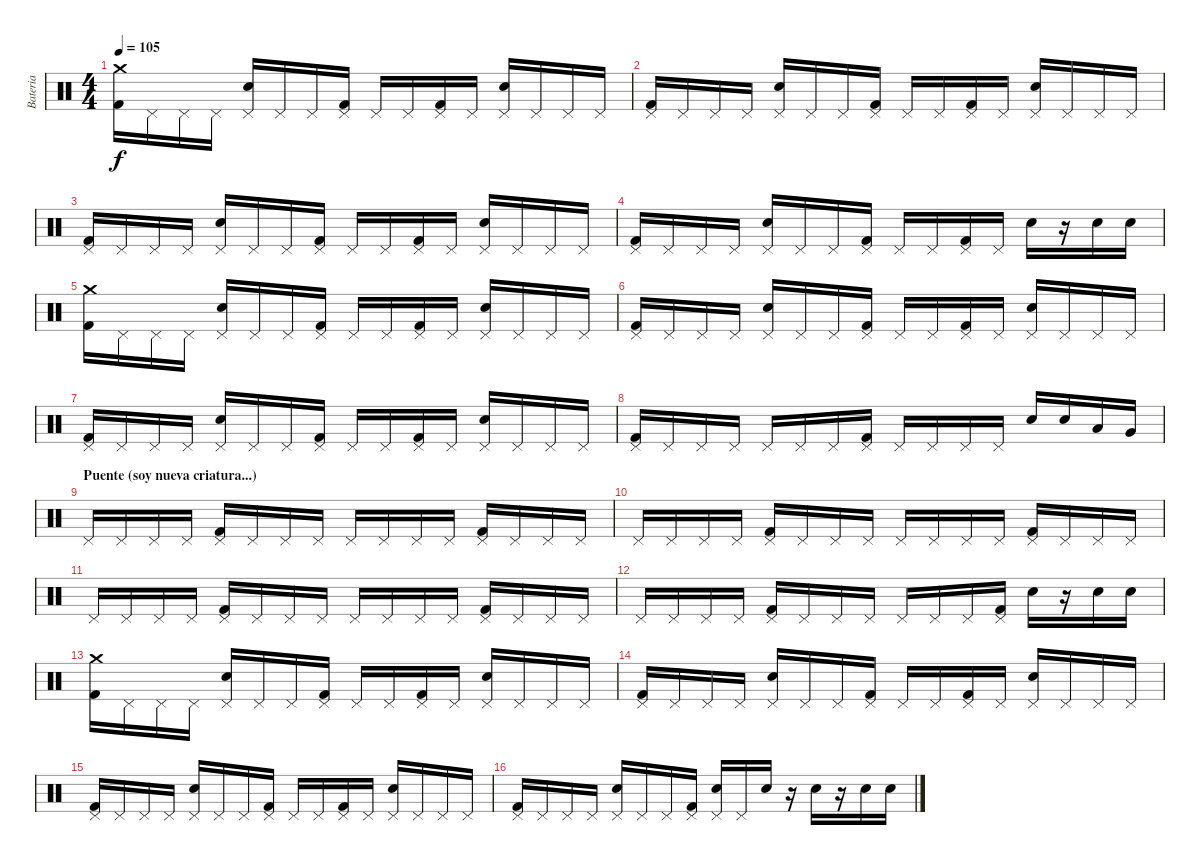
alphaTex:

\track ("Bateria" "Bateria") {instrument percussion}
\staff {score}
\articulation defaults
\ts (4 4)
\tempo 105
\clef neutral
\ks c
("Crash medium (hit)" "Kick (hit) 2").16{dy f} "Pedal Hi-Hat (hit)".16 "Pedal Hi-Hat (hit)".16 "Pedal Hi-Hat (hit)".16 ("Pedal Hi-Hat (hit)" "Electric Snare (hit)").16 "Pedal Hi-Hat (hit)".16 "Pedal Hi-Hat (hit)".16 ("Pedal Hi-Hat (hit)" "Kick (hit) 2").16 "Pedal Hi-Hat (hit)".16 "Pedal Hi-Hat (hit)".16 ("Pedal Hi-Hat (hit)" "Kick (hit) 2").16 "Pedal Hi-Hat (hit)".16 ("Pedal Hi-Hat (hit)" "Electric Snare (hit)").16 "Pedal Hi-Hat (hit)".16 "Pedal Hi-Hat (hit)".16 "Pedal Hi-Hat (hit)".16 |
("Pedal Hi-Hat (hit)" "Kick (hit) 2").16 "Pedal Hi-Hat (hit)".16 "Pedal Hi-Hat (hit)".16 "Pedal Hi-Hat (hit)".16 ("Pedal Hi-Hat (hit)" "Electric Snare (hit)").16 "Pedal Hi-Hat (hit)".16 "Pedal Hi-Hat (hit)".16 ("Pedal Hi-Hat (hit)" "Kick (hit) 2").16 "Pedal Hi-Hat (hit)".16 "Pedal Hi-Hat (hit)".16 ("Pedal Hi-Hat (hit)" "Kick (hit) 2").16 "Pedal Hi-Hat (hit)".16 ("Pedal Hi-Hat (hit)" "Electric Snare (hit)").16 "Pedal Hi-Hat (hit)".16 "Pedal Hi-Hat (hit)".16 "Pedal Hi-Hat (hit)".16 |
("Pedal Hi-Hat (hit)" "Kick (hit) 2").16 "Pedal Hi-Hat (hit)".16 "Pedal Hi-Hat (hit)".16 "Pedal Hi-Hat (hit)".16 ("Pedal Hi-Hat (hit)" "Electric Snare (hit)").16 "Pedal Hi-Hat (hit)".16 "Pedal Hi-Hat (hit)".16 ("Pedal Hi-Hat (hit)" "Kick (hit) 2").16 "Pedal Hi-Hat (hit)".16 "Pedal Hi-Hat (hit)".16 ("Pedal Hi-Hat (hit)" "Kick (hit) 2").16 "Pedal Hi-Hat (hit)".16 ("Pedal Hi-Hat (hit)" "Electric Snare (hit)").16 "Pedal Hi-Hat (hit)".16 "Pedal Hi-Hat (hit)".16 "Pedal Hi-Hat (hit)".16 |
("Pedal Hi-Hat (hit)" "Kick (hit) 2").16 "Pedal Hi-Hat (hit)".16 "Pedal Hi-Hat (hit)".16 "Pedal Hi-Hat (hit)".16 ("Pedal Hi-Hat (hit)" "Electric Snare (hit)").16 "Pedal Hi-Hat (hit)".16 "Pedal Hi-Hat (hit)".16 ("Pedal Hi-Hat (hit)" "Kick (hit) 2").16 "Pedal Hi-Hat (hit)".16 "Pedal Hi-Hat (hit)".16 ("Pedal Hi-Hat (hit)" "Kick (hit) 2").16 "Pedal Hi-Hat (hit)".16 "Electric Snare (hit)".16 r.16 "Electric Snare (hit)".16 "Electric Snare (hit)".16 |
("Crash medium (hit)" "Kick (hit) 2").16 "Pedal Hi-Hat (hit)".16 "Pedal Hi-Hat (hit)".16 "Pedal Hi-Hat (hit)".16 ("Pedal Hi-Hat (hit)" "Electric Snare (hit)").16 "Pedal Hi-Hat (hit)".16 "Pedal Hi-Hat (hit)".16 ("Pedal Hi-Hat (hit)" "Kick (hit) 2").16 "Pedal Hi-Hat (hit)".16 "Pedal Hi-Hat (hit)".16 ("Pedal Hi-Hat (hit)" "Kick (hit) 2").16 "Pedal Hi-Hat (hit)".16 ("Pedal Hi-Hat (hit)" "Electric Snare (hit)").16 "Pedal Hi-Hat (hit)".16 "Pedal Hi-Hat (hit)".16 "Pedal Hi-Hat (hit)".16 |
("Pedal Hi-Hat (hit)" "Kick (hit) 2").16 "Pedal Hi-Hat (hit)".16 "Pedal Hi-Hat (hit)".16 "Pedal Hi-Hat (hit)".16 ("Pedal Hi-Hat (hit)" "Electric Snare (hit)").16 "Pedal Hi-Hat (hit)".16 "Pedal Hi-Hat (hit)".16 ("Pedal Hi-Hat (hit)" "Kick (hit) 2").16 "Pedal Hi-Hat (hit)".16 "Pedal Hi-Hat (hit)".16 ("Pedal Hi-Hat (hit)" "Kick (hit) 2").16 "Pedal Hi-Hat (hit)".16 ("Pedal Hi-Hat (hit)" "Electric Snare (hit)").16 "Pedal Hi-Hat (hit)".16 "Pedal Hi-Hat (hit)".16 "Pedal Hi-Hat (hit)".16 |
("Pedal Hi-Hat (hit)" "Kick (hit) 2").16 "Pedal Hi-Hat (hit)".16 "Pedal Hi-Hat (hit)".16 "Pedal Hi-Hat (hit)".16 ("Pedal Hi-Hat (hit)" "Electric Snare (hit)").16 "Pedal Hi-Hat (hit)".16 "Pedal Hi-Hat (hit)".16 ("Pedal Hi-Hat (hit)" "Kick (hit) 2").16 "Pedal Hi-Hat (hit)".16 "Pedal Hi-Hat (hit)".16 ("Pedal Hi-Hat (hit)" "Kick (hit) 2").16 "Pedal Hi-Hat (hit)".16 ("Pedal Hi-Hat (hit)" "Electric Snare (hit)").16 "Pedal Hi-Hat (hit)".16 "Pedal Hi-Hat (hit)".16 "Pedal Hi-Hat (hit)".16 |
("Pedal Hi-Hat (hit)" "Kick (hit) 2").16 "Pedal Hi-Hat (hit)".16 "Pedal Hi-Hat (hit)".16 "Pedal Hi-Hat (hit)".16 "Pedal Hi-Hat (hit)".16 "Pedal Hi-Hat (hit)".16 "Pedal Hi-Hat (hit)".16 ("Pedal Hi-Hat (hit)" "Kick (hit) 2").16 "Pedal Hi-Hat (hit)".16 "Pedal Hi-Hat (hit)".16 "Pedal Hi-Hat (hit)".16 "Pedal Hi-Hat (hit)".16 "Electric Snare (hit)".16 "Electric Snare (hit)".16 "Low Floor Tom (hit)".16 "Very Low Tom (hit)".16 |
\section ("" "Puente (soy nueva criatura...)")
"Pedal Hi-Hat (hit)".16 "Pedal Hi-Hat (hit)".16 "Pedal Hi-Hat (hit)".16 "Pedal Hi-Hat (hit)".16 ("Pedal Hi-Hat (hit)" "Kick (hit) 2").16 "Pedal Hi-Hat (hit)".16 "Pedal Hi-Hat (hit)".16 "Pedal Hi-Hat (hit)".16 "Pedal Hi-Hat (hit)".16 "Pedal Hi-Hat (hit)".16 "Pedal Hi-Hat (hit)".16 "Pedal Hi-Hat (hit)".16 ("Pedal Hi-Hat (hit)" "Kick (hit) 2").16 "Pedal Hi-Hat (hit)".16 "Pedal Hi-Hat (hit)".16 "Pedal Hi-Hat (hit)".16 |
"Pedal Hi-Hat (hit)".16 "Pedal Hi-Hat (hit)".16 "Pedal Hi-Hat (hit)".16 "Pedal Hi-Hat (hit)".16 ("Pedal Hi-Hat (hit)" "Kick (hit) 2").16 "Pedal Hi-Hat (hit)".16 "Pedal Hi-Hat (hit)".16 "Pedal Hi-Hat (hit)".16 "Pedal Hi-Hat (hit)".16 "Pedal Hi-Hat (hit)".16 "Pedal Hi-Hat (hit)".16 "Pedal Hi-Hat (hit)".16 ("Pedal Hi-Hat (hit)" "Kick (hit) 2").16 "Pedal Hi-Hat (hit)".16 "Pedal Hi-Hat (hit)".16 "Pedal Hi-Hat (hit)".16 |
"Pedal Hi-Hat (hit)".16 "Pedal Hi-Hat (hit)".16 "Pedal Hi-Hat (hit)".16 "Pedal Hi-Hat (hit)".16 ("Pedal Hi-Hat (hit)" "Kick (hit) 2").16 "Pedal Hi-Hat (hit)".16 "Pedal Hi-Hat (hit)".16 "Pedal Hi-Hat (hit)".16 "Pedal Hi-Hat (hit)".16 "Pedal Hi-Hat (hit)".16 "Pedal Hi-Hat (hit)".16 "Pedal Hi-Hat (hit)".16 ("Pedal Hi-Hat (hit)" "Kick (hit) 2").16 "Pedal Hi-Hat (hit)".16 "Pedal Hi-Hat (hit)".16 "Pedal Hi-Hat (hit)".16 |
"Pedal Hi-Hat (hit)".16 "Pedal Hi-Hat (hit)".16 "Pedal Hi-Hat (hit)".16 "Pedal Hi-Hat (hit)".16 ("Pedal Hi-Hat (hit)" "Kick (hit) 2").16 "Pedal Hi-Hat (hit)".16 "Pedal Hi-Hat (hit)".16 "Pedal Hi-Hat (hit)".16 "Pedal Hi-Hat (hit)".16 "Pedal Hi-Hat (hit)".16 "Pedal Hi-Hat (hit)".16 ("Pedal Hi-Hat (hit)" "Kick (hit) 2").16 "Electric Snare (hit)".16 r.16 "Electric Snare (hit)".16 "Electric Snare (hit)".16 |
("Crash medium (hit)" "Kick (hit) 2").16 "Pedal Hi-Hat (hit)".16 "Pedal Hi-Hat (hit)".16 "Pedal Hi-Hat (hit)".16 ("Pedal Hi-Hat (hit)" "Electric Snare (hit)").16 "Pedal Hi-Hat (hit)".16 "Pedal Hi-Hat (hit)".16 ("Pedal Hi-Hat (hit)" "Kick (hit) 2").16 "Pedal Hi-Hat (hit)".16 "Pedal Hi-Hat (hit)".16 ("Pedal Hi-Hat (hit)" "Kick (hit) 2").16 "Pedal Hi-Hat (hit)".16 ("Pedal Hi-Hat (hit)" "Electric Snare (hit)").16 "Pedal Hi-Hat (hit)".16 "Pedal Hi-Hat (hit)".16 "Pedal Hi-Hat (hit)".16 |
("Pedal Hi-Hat (hit)" "Kick (hit) 2").16 "Pedal Hi-Hat (hit)".16 "Pedal Hi-Hat (hit)".16 "Pedal Hi-Hat (hit)".16 ("Pedal Hi-Hat (hit)" "Electric Snare (hit)").16 "Pedal Hi-Hat (hit)".16 "Pedal Hi-Hat (hit)".16 ("Pedal Hi-Hat (hit)" "Kick (hit) 2").16 "Pedal Hi-Hat (hit)".16 "Pedal Hi-Hat (hit)".16 ("Pedal Hi-Hat (hit)" "Kick (hit) 2").16 "Pedal Hi-Hat (hit)".16 ("Pedal Hi-Hat (hit)" "Electric Snare (hit)").16 "Pedal Hi-Hat (hit)".16 "Pedal Hi-Hat (hit)".16 "Pedal Hi-Hat (hit)".16 |
("Pedal Hi-Hat (hit)" "Kick (hit) 2").16 "Pedal Hi-Hat (hit)".16 "Pedal Hi-Hat (hit)".16 "Pedal Hi-Hat (hit)".16 ("Pedal Hi-Hat (hit)" "Electric Snare (hit)").16 "Pedal Hi-Hat (hit)".16 "Pedal Hi-Hat (hit)".16 ("Pedal Hi-Hat (hit)" "Kick (hit) 2").16 "Pedal Hi-Hat (hit)".16 "Pedal Hi-Hat (hit)".16 ("Pedal Hi-Hat (hit)" "Kick (hit) 2").16 "Pedal Hi-Hat (hit)".16 ("Pedal Hi-Hat (hit)" "Electric Snare (hit)").16 "Pedal Hi-Hat (hit)".16 "Pedal Hi-Hat (hit)".16 "Pedal Hi-Hat (hit)".16 |
("Pedal Hi-Hat (hit)" "Kick (hit) 2").16 "Pedal Hi-Hat (hit)".16 "Pedal Hi-Hat (hit)".16 "Pedal Hi-Hat (hit)".16 ("Pedal Hi-Hat (hit)" "Electric Snare (hit)").16 "Pedal Hi-Hat (hit)".16 "Pedal Hi-Hat (hit)".16 ("Pedal Hi-Hat (hit)" "Kick (hit) 2").16 ("Pedal Hi-Hat (hit)" "Electric Snare (hit)").16 "Pedal Hi-Hat (hit)".16 "Electric Snare (hit)".16 r.16 "Electric Snare (hit)".16 r.16 "Electric Snare (hit)".16 "Electric Snare (hit)".16
